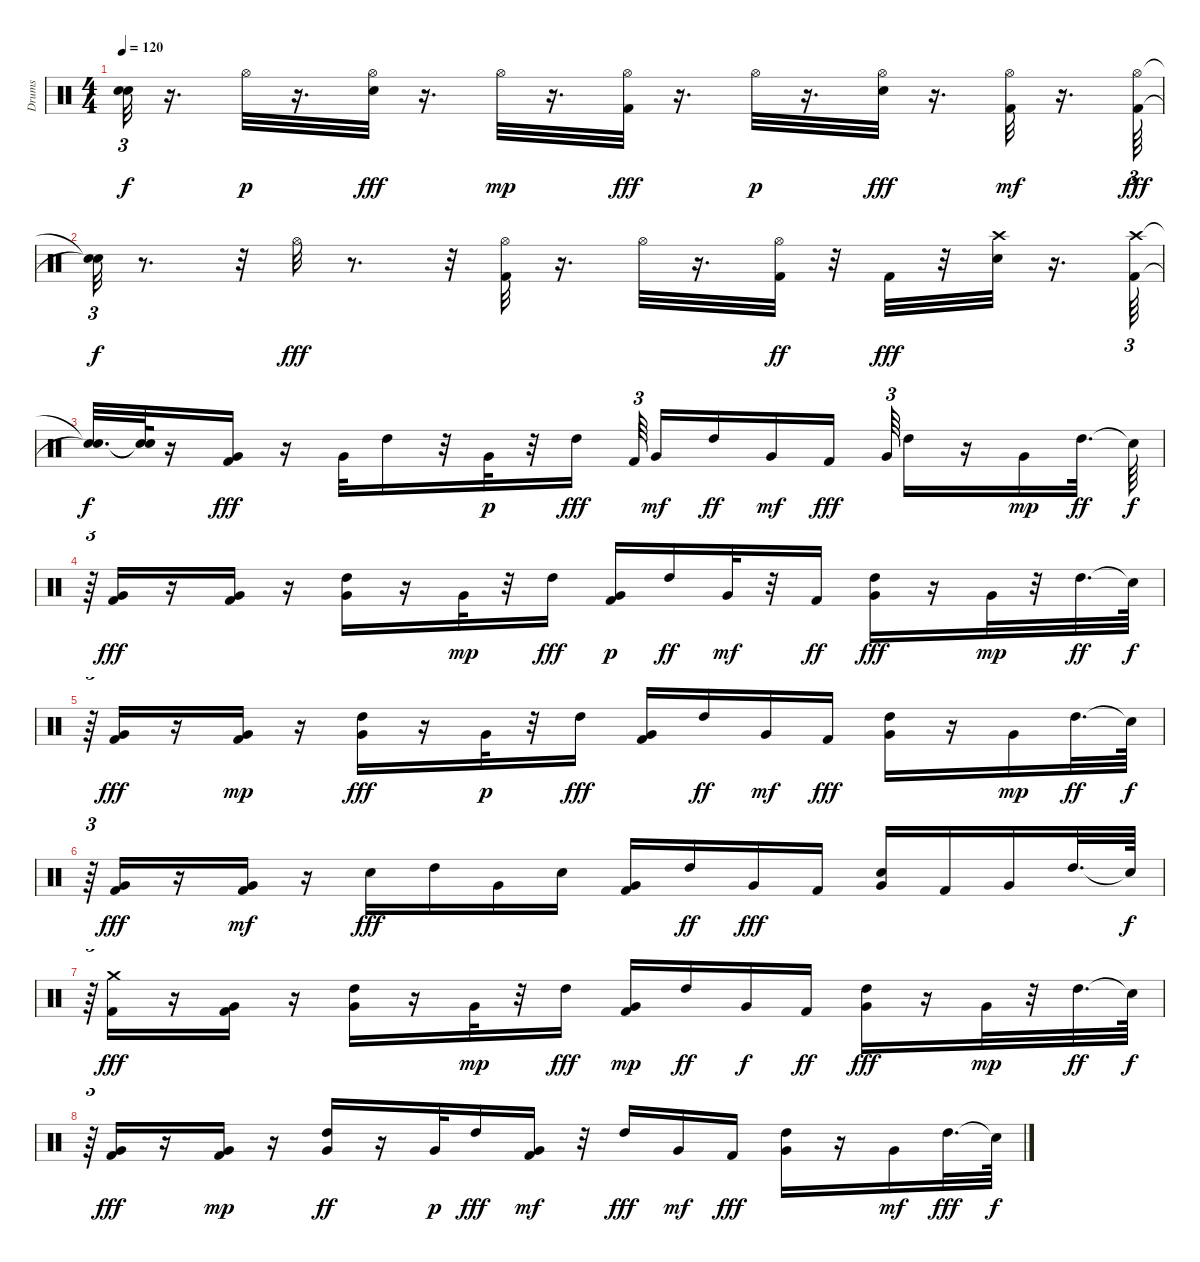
\track ("Drums" "Drums") {instrument percussion}
\staff {score}
\articulation defaults
\ts (4 4)
\tempo 120
\clef neutral
\ks c
("Snare (hit)"{t} "Snare (hit)"{t}).32{tu (3 2) dy f} r.16{d} "Hi-Hat (open)".32{dy p} r.16{d} ("Snare (hit) 2" "Hi-Hat (open)").32{dy fff} r.16{d} "Hi-Hat (open)".32{dy mp} r.16{d} ("Kick (hit) 2" "Hi-Hat (open)").32{dy fff} r.16{d} "Hi-Hat (open)".32{dy p} r.16{d} ("Snare (hit) 2" "Hi-Hat (open)").32{dy fff} r.16{d} ("Kick (hit) 2" "Hi-Hat (open)").32{dy mf} r.16{d} ("Kick (hit) 2" "Hi-Hat (open)").64{tu (3 2) dy fff} |
("Snare (hit)"{t} "Snare (hit)"{t}).32{tu (3 2) dy f} r.8{d} r.32 "Hi-Hat (open)".32{dy fff} r.8{d} r.32 ("Kick (hit) 2" "Hi-Hat (open)").32 r.16{d} "Hi-Hat (open)".32 r.16{d} ("Kick (hit) 2" "Hi-Hat (open)").32{dy ff} r.32 "Kick (hit) 2".32{dy fff} r.32 ("Crash high (hit)" "Snare (hit) 2").32 r.16{d} ("Crash high (hit)" "Kick (hit) 2").64{tu (3 2)} |
("Snare (hit)"{t} "Snare (hit)"{t}).32{d dy f} ("Snare (hit)"{t} "Snare (hit)"{t}).64 r.16 ("Very Low Tom (hit)" "Kick (hit) 2").16{dy fff} r.16 "Very Low Tom (hit)".32 "High Tom (hit)".16 r.32 "Very Low Tom (hit)".32{dy p} r.32 "High Tom (hit)".16{dy fff} "Kick (hit) 2".64{tu (3 2) beam splitsecondary} "Very Low Tom (hit)".16{dy mf} "High Tom (hit)".16{dy ff} "Very Low Tom (hit)".16{dy mf} "Kick (hit) 2".16{dy fff} "Very Low Tom (hit)".64{tu (3 2)} "High Tom (hit)".16 r.16 "Very Low Tom (hit)".16{dy mp} "High Tom (hit)".32{d dy ff} "Snare (hit)"{t}.64{dy f} |
r.64{tu (3 2)} ("Very Low Tom (hit)" "Kick (hit) 2").16{dy fff} r.16 ("Kick (hit) 2" "Very Low Tom (hit)").16 r.16 ("Very Low Tom (hit)" "High Tom (hit)").16 r.16 "Very Low Tom (hit)".32{dy mp} r.32 "High Tom (hit)".16{dy fff} ("Kick (hit) 2" "Very Low Tom (hit)").16{dy p} "High Tom (hit)".16{dy ff} "Very Low Tom (hit)".32{dy mf} r.32 "Kick (hit) 2".16{dy ff} ("Very Low Tom (hit)" "High Tom (hit)").16{dy fff} r.16 "Very Low Tom (hit)".32{dy mp} r.32 "High Tom (hit)".32{d dy ff} "Snare (hit)"{t}.64{dy f} |
r.64{tu (3 2)} ("Kick (hit) 2" "Very Low Tom (hit)").16{dy fff} r.16 ("Kick (hit) 2" "Very Low Tom (hit)").16{dy mp} r.16 ("Very Low Tom (hit)" "High Tom (hit)").16{dy fff} r.16 "Very Low Tom (hit)".32{dy p} r.32 "High Tom (hit)".16{dy fff} ("Very Low Tom (hit)" "Kick (hit) 2").16 "High Tom (hit)".16{dy ff} "Very Low Tom (hit)".16{dy mf} "Kick (hit) 2".16{dy fff} ("Very Low Tom (hit)" "High Tom (hit)").16 r.16 "Very Low Tom (hit)".16{dy mp} "High Tom (hit)".32{d dy ff} "Snare (hit)"{t}.64{dy f} |
r.64{tu (3 2)} ("Kick (hit) 2" "Very Low Tom (hit)").16{dy fff} r.16 ("Kick (hit) 2" "Very Low Tom (hit)").16{dy mf} r.16 "Snare (hit) 2".16{dy fff} "High Tom (hit)".16 "Very Low Tom (hit)".16 "Snare (hit) 2".16 ("Kick (hit) 2" "Very Low Tom (hit)").16 "High Tom (hit)".16{dy ff} "Very Low Tom (hit)".16{dy fff} "Kick (hit) 2".16 ("Snare (hit) 2" "Very Low Tom (hit)").16 "Kick (hit) 2".16 "Very Low Tom (hit)".16 "High Tom (hit)".32{d} "Snare (hit)"{t}.64{dy f} |
r.64{tu (3 2)} ("Kick (hit) 2" "Crash medium (hit)").16{dy fff} r.16 ("Very Low Tom (hit)" "Kick (hit) 2").16 r.16 ("Very Low Tom (hit)" "High Tom (hit)").16 r.16 "Very Low Tom (hit)".32{dy mp} r.32 "High Tom (hit)".16{dy fff} ("Kick (hit) 2" "Very Low Tom (hit)").16{dy mp} "High Tom (hit)".16{dy ff} "Very Low Tom (hit)".16{dy f} "Kick (hit) 2".16{dy ff} ("Very Low Tom (hit)" "High Tom (hit)").16{dy fff} r.16 "Very Low Tom (hit)".32{dy mp} r.32 "High Tom (hit)".32{d dy ff} "Snare (hit)"{t}.64{dy f} |
r.64{tu (3 2)} ("Kick (hit) 2" "Very Low Tom (hit)").16{dy fff} r.16 ("Kick (hit) 2" "Very Low Tom (hit)").16{dy mp} r.16 ("High Tom (hit)" "Very Low Tom (hit)").16{dy ff} r.16 "Very Low Tom (hit)".32{dy p} "High Tom (hit)".16{dy fff} ("Kick (hit) 2" "Very Low Tom (hit)").16{dy mf} r.32 "High Tom (hit)".16{dy fff} "Very Low Tom (hit)".16{dy mf} "Kick (hit) 2".16{dy fff} ("Very Low Tom (hit)" "High Tom (hit)").16 r.16 "Very Low Tom (hit)".16{dy mf} "High Tom (hit)".32{d dy fff} "Snare (hit)"{t}.64{dy f}
